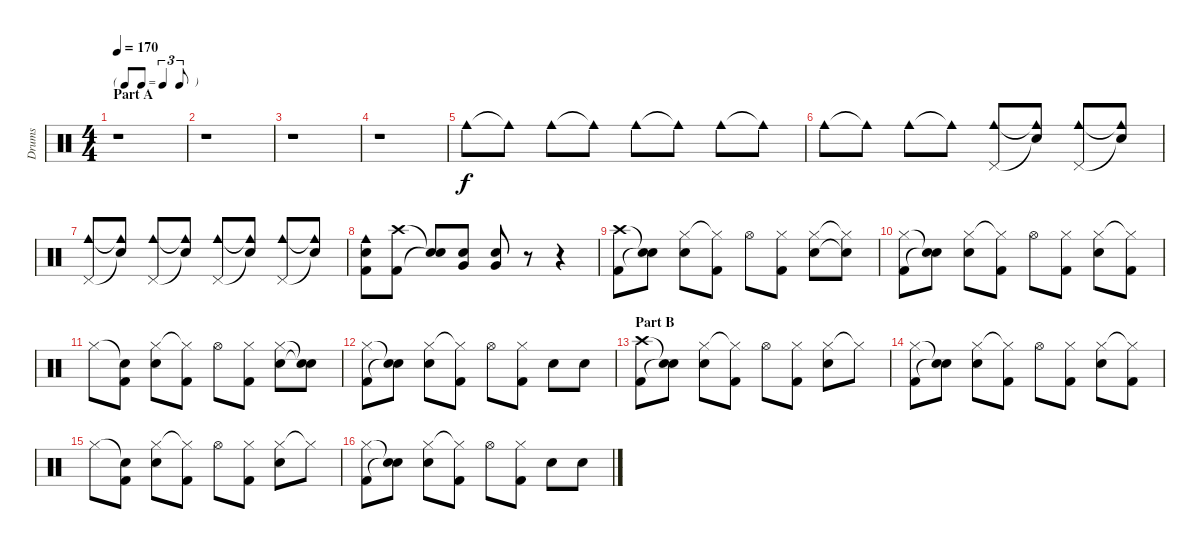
\track ("Drums" "Drums") {instrument percussion}
\staff {score}
\articulation defaults
\ts (4 4)
\tf triplet8th
\section ("" "Part A")
\tempo 170
\clef neutral
\ks c
r.1{dy f} |
r.1 |
r.1 |
r.1 |
"Cowbell medium (hit)".8 "Cowbell medium (hit)"{t}.8 "Cowbell medium (hit)".8 "Cowbell medium (hit)"{t}.8 "Cowbell medium (hit)".8 "Cowbell medium (hit)"{t}.8 "Cowbell medium (hit)".8 "Cowbell medium (hit)"{t}.8 |
"Cowbell medium (hit)".8 "Cowbell medium (hit)"{t}.8 "Cowbell medium (hit)".8 "Cowbell medium (hit)"{t}.8 ("Cowbell medium (hit)" "Pedal Hi-Hat (hit)").8 ("Cowbell medium (hit)"{t} "Snare (hit)"{t}).8 ("Cowbell medium (hit)" "Pedal Hi-Hat (hit)").8 ("Cowbell medium (hit)"{t} "Snare (hit)"{t}).8 |
("Cowbell medium (hit)" "Pedal Hi-Hat (hit)").8 ("Cowbell medium (hit)"{t} "Snare (hit)"{t}).8 ("Cowbell medium (hit)" "Pedal Hi-Hat (hit)").8 ("Cowbell medium (hit)"{t} "Snare (hit)"{t}).8 ("Cowbell medium (hit)" "Pedal Hi-Hat (hit)").8 ("Cowbell medium (hit)"{t} "Snare (hit)"{t}).8 ("Cowbell medium (hit)" "Pedal Hi-Hat (hit)").8 ("Cowbell medium (hit)"{t} "Snare (hit)"{t}).8 |
("Cowbell medium (hit)" "Electric Snare (hit)" "Kick (hit) 2").8 ("Crash high (hit)" "Kick (hit) 2").8 ("Snare (hit)"{t} "Snare (hit)"{t}).8 ("Very Low Tom (hit)" "Electric Snare (hit)").8 ("Very Low Tom (hit)" "Electric Snare (hit)").8 r.8 r.4 |
("Crash high (hit)" "Kick (hit) 2").8 ("Snare (hit)"{t} "Snare (hit)"{t}).8 ("Hi-Hat (closed)" "Electric Snare (hit)").8 ("Hi-Hat (closed)"{t} "Kick (hit) 2").8 "Hi-Hat (open)".8 ("Hi-Hat (closed)" "Kick (hit) 2").8 ("Hi-Hat (closed)" "Electric Snare (hit)").8 ("Hi-Hat (closed)"{t} "Snare (hit)"{t}).8 |
("Hi-Hat (closed)" "Kick (hit) 2").8 ("Snare (hit)"{t} "Snare (hit)"{t}).8 ("Hi-Hat (closed)" "Electric Snare (hit)").8 ("Hi-Hat (closed)"{t} "Kick (hit) 2").8 "Hi-Hat (open)".8 ("Hi-Hat (closed)" "Kick (hit) 2").8 ("Hi-Hat (closed)" "Electric Snare (hit)").8 ("Hi-Hat (closed)"{t} "Kick (hit) 2").8 |
"Hi-Hat (closed)".8 ("Snare (hit)"{t} "Kick (hit) 2").8 ("Hi-Hat (closed)" "Electric Snare (hit)").8 ("Hi-Hat (closed)"{t} "Kick (hit) 2").8 "Hi-Hat (open)".8 ("Hi-Hat (closed)" "Kick (hit) 2").8 ("Hi-Hat (closed)" "Electric Snare (hit)").8 ("Snare (hit)"{t} "Snare (hit)"{t}).8 |
("Hi-Hat (closed)" "Kick (hit) 2").8 ("Snare (hit)"{t} "Snare (hit)"{t}).8 ("Hi-Hat (closed)" "Electric Snare (hit)").8 ("Hi-Hat (closed)"{t} "Kick (hit) 2").8 "Hi-Hat (open)".8 ("Hi-Hat (closed)" "Kick (hit) 2").8 "Electric Snare (hit)".8 "Electric Snare (hit)".8 |
\section ("" "Part B")
("Crash high (hit)" "Kick (hit) 2").8 ("Snare (hit)"{t} "Snare (hit)"{t}).8 ("Hi-Hat (closed)" "Electric Snare (hit)").8 ("Hi-Hat (closed)"{t} "Kick (hit) 2").8 "Hi-Hat (open)".8 ("Hi-Hat (closed)" "Kick (hit) 2").8 ("Hi-Hat (closed)" "Electric Snare (hit)").8 "Hi-Hat (closed)"{t}.8 |
("Hi-Hat (closed)" "Kick (hit) 2").8 ("Snare (hit)"{t} "Snare (hit)"{t}).8 ("Hi-Hat (closed)" "Electric Snare (hit)").8 ("Hi-Hat (closed)"{t} "Kick (hit) 2").8 "Hi-Hat (open)".8 ("Hi-Hat (closed)" "Kick (hit) 2").8 ("Hi-Hat (closed)" "Electric Snare (hit)").8 ("Hi-Hat (closed)"{t} "Kick (hit) 2").8 |
"Hi-Hat (closed)".8 ("Snare (hit)"{t} "Kick (hit) 2").8 ("Hi-Hat (closed)" "Electric Snare (hit)").8 ("Hi-Hat (closed)"{t} "Kick (hit) 2").8 "Hi-Hat (open)".8 ("Hi-Hat (closed)" "Kick (hit) 2").8 ("Hi-Hat (closed)" "Electric Snare (hit)").8 "Hi-Hat (closed)"{t}.8 |
("Hi-Hat (closed)" "Kick (hit) 2").8 ("Snare (hit)"{t} "Snare (hit)"{t}).8 ("Hi-Hat (closed)" "Electric Snare (hit)").8 ("Hi-Hat (closed)"{t} "Kick (hit) 2").8 "Hi-Hat (open)".8 ("Hi-Hat (closed)" "Kick (hit) 2").8 "Electric Snare (hit)".8 "Electric Snare (hit)".8
